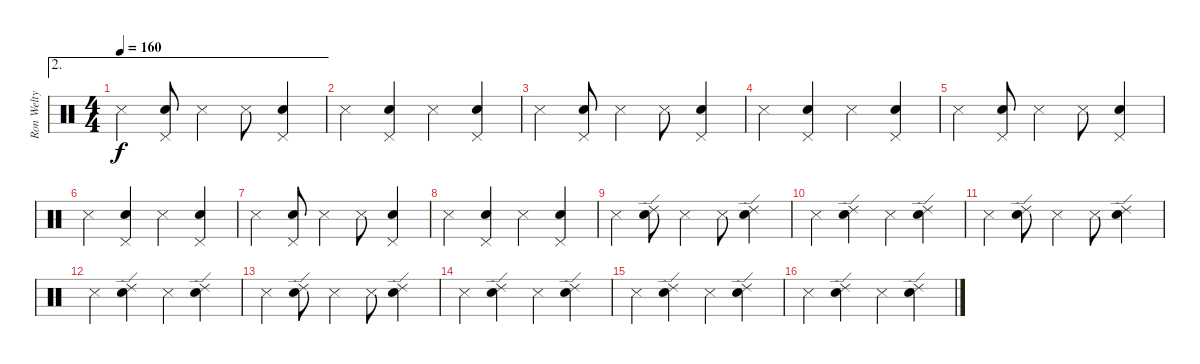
\track ("Ron Welty" "Ron Welty") {instrument percussion}
\staff {score}
\articulation defaults
\ae 2
\ts (4 4)
\tempo 160
\clef neutral
\ks c "Metronome (hit)".4{dy f}
("Pedal Hi-Hat (hit)" "Snare (hit) 2").8 "Metronome (hit)".4 "Metronome (hit)".8 ("Pedal Hi-Hat (hit)" "Snare (hit) 2").4 |
"Metronome (hit)".4 ("Pedal Hi-Hat (hit)" "Snare (hit) 2").4 "Metronome (hit)".4 ("Pedal Hi-Hat (hit)" "Snare (hit) 2").4 |
"Metronome (hit)".4 ("Pedal Hi-Hat (hit)" "Snare (hit) 2").8 "Metronome (hit)".4 "Metronome (hit)".8 ("Pedal Hi-Hat (hit)" "Snare (hit) 2").4 |
"Metronome (hit)".4 ("Pedal Hi-Hat (hit)" "Snare (hit) 2").4 "Metronome (hit)".4 ("Pedal Hi-Hat (hit)" "Snare (hit) 2").4 |
"Metronome (hit)".4 ("Pedal Hi-Hat (hit)" "Snare (hit) 2").8 "Metronome (hit)".4 "Metronome (hit)".8 ("Pedal Hi-Hat (hit)" "Snare (hit) 2").4 |
"Metronome (hit)".4 ("Pedal Hi-Hat (hit)" "Snare (hit) 2").4 "Metronome (hit)".4 ("Pedal Hi-Hat (hit)" "Snare (hit) 2").4 |
"Metronome (hit)".4 ("Pedal Hi-Hat (hit)" "Snare (hit) 2").8 "Metronome (hit)".4 "Metronome (hit)".8 ("Pedal Hi-Hat (hit)" "Snare (hit) 2").4 |
"Metronome (hit)".4 ("Pedal Hi-Hat (hit)" "Snare (hit) 2").4 "Metronome (hit)".4 ("Pedal Hi-Hat (hit)" "Snare (hit) 2").4 |
"Metronome (hit)".4 ("Ride (edge) 2" "Snare (hit) 2").8 "Metronome (hit)".4 "Metronome (hit)".8 ("Ride (edge) 2" "Snare (hit) 2").4 |
"Metronome (hit)".4 ("Ride (edge) 2" "Snare (hit) 2").4 "Metronome (hit)".4 ("Ride (edge) 2" "Snare (hit) 2").4 |
"Metronome (hit)".4 ("Ride (edge) 2" "Snare (hit) 2").8 "Metronome (hit)".4 "Metronome (hit)".8 ("Ride (edge) 2" "Snare (hit) 2").4 |
"Metronome (hit)".4 ("Ride (edge) 2" "Snare (hit) 2").4 "Metronome (hit)".4 ("Ride (edge) 2" "Snare (hit) 2").4 |
"Metronome (hit)".4 ("Ride (edge) 2" "Snare (hit) 2").8 "Metronome (hit)".4 "Metronome (hit)".8 ("Ride (edge) 2" "Snare (hit) 2").4 |
"Metronome (hit)".4 ("Ride (edge) 2" "Snare (hit) 2").4 "Metronome (hit)".4 ("Ride (edge) 2" "Snare (hit) 2").4 |
"Metronome (hit)".4 ("Ride (edge) 2" "Snare (hit) 2").4 "Metronome (hit)".4 ("Ride (edge) 2" "Snare (hit) 2").4 |
"Metronome (hit)".4 ("Ride (edge) 2" "Snare (hit) 2").4 "Metronome (hit)".4 ("Ride (edge) 2" "Snare (hit) 2").4
